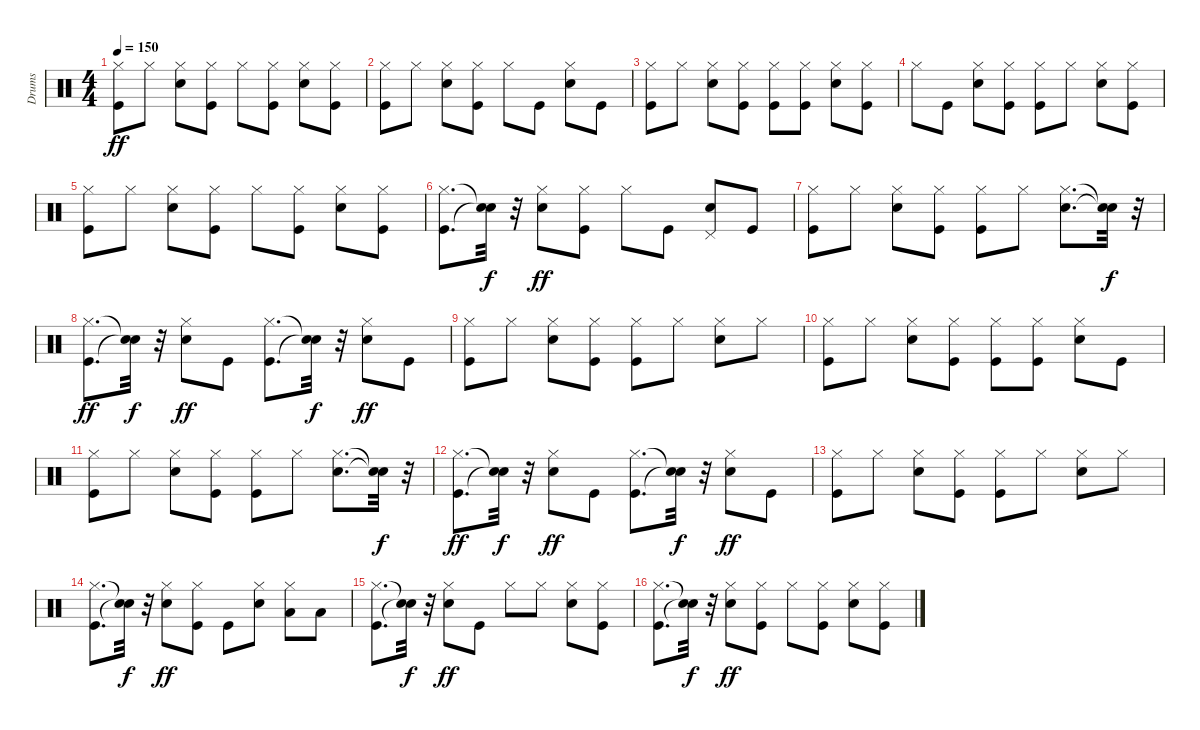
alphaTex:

\track ("Drums" "Drums") {instrument percussion}
\staff {score}
\articulation defaults
\ts (4 4)
\tempo 150
\clef neutral
\ks c
("Kick (hit)" "Hi-Hat (closed)").8{dy ff} "Hi-Hat (closed)".8 ("Snare (hit) 2" "Hi-Hat (closed)").8 ("Kick (hit)" "Hi-Hat (closed)").8 "Hi-Hat (closed)".8 ("Kick (hit)" "Hi-Hat (closed)").8 ("Snare (hit) 2" "Hi-Hat (closed)").8 ("Kick (hit)" "Hi-Hat (closed)").8 |
("Kick (hit)" "Hi-Hat (closed)").8 "Hi-Hat (closed)".8 ("Snare (hit) 2" "Hi-Hat (closed)").8 ("Kick (hit)" "Hi-Hat (closed)").8 "Hi-Hat (closed)".8 "Kick (hit)".8 ("Snare (hit) 2" "Hi-Hat (closed)").8 "Kick (hit)".8 |
("Kick (hit)" "Hi-Hat (closed)").8 "Hi-Hat (closed)".8 ("Snare (hit) 2" "Hi-Hat (closed)").8 ("Kick (hit)" "Hi-Hat (closed)").8 ("Kick (hit)" "Hi-Hat (closed)").8 ("Kick (hit)" "Hi-Hat (closed)").8 ("Snare (hit) 2" "Hi-Hat (closed)").8 ("Kick (hit)" "Hi-Hat (closed)").8 |
"Hi-Hat (closed)".8 "Kick (hit)".8 ("Snare (hit) 2" "Hi-Hat (closed)").8 ("Kick (hit)" "Hi-Hat (closed)").8 ("Kick (hit)" "Hi-Hat (closed)").8 "Hi-Hat (closed)".8 ("Snare (hit) 2" "Hi-Hat (closed)").8 ("Kick (hit)" "Hi-Hat (closed)").8 |
("Kick (hit)" "Hi-Hat (closed)").8 "Hi-Hat (closed)".8 ("Snare (hit) 2" "Hi-Hat (closed)").8 ("Kick (hit)" "Hi-Hat (closed)").8 "Hi-Hat (closed)".8 ("Kick (hit)" "Hi-Hat (closed)").8 ("Snare (hit) 2" "Hi-Hat (closed)").8 ("Kick (hit)" "Hi-Hat (closed)").8 |
("Kick (hit)" "Hi-Hat (closed)").8{d} ("Snare (hit)"{t} "Snare (hit)"{t}).32{dy f} r.32 ("Snare (hit) 2" "Hi-Hat (closed)").8{dy ff} ("Kick (hit)" "Hi-Hat (closed)").8 "Hi-Hat (closed)".8 "Kick (hit)".8 ("Snare (hit) 2" "Pedal Hi-Hat (hit)").8 "Kick (hit)".8 |
("Kick (hit)" "Hi-Hat (closed)").8 "Hi-Hat (closed)".8 ("Snare (hit) 2" "Hi-Hat (closed)").8 ("Kick (hit)" "Hi-Hat (closed)").8 ("Kick (hit)" "Hi-Hat (closed)").8 "Hi-Hat (closed)".8 ("Snare (hit) 2" "Hi-Hat (closed)").8{d} ("Snare (hit)"{t} "Snare (hit)"{t}).32{dy f} r.32 |
("Kick (hit)" "Hi-Hat (closed)").8{d dy ff} ("Snare (hit)"{t} "Snare (hit)"{t}).32{dy f} r.32 ("Snare (hit) 2" "Hi-Hat (closed)").8{dy ff} "Kick (hit)".8 ("Kick (hit)" "Hi-Hat (closed)").8{d} ("Snare (hit)"{t} "Snare (hit)"{t}).32{dy f} r.32 ("Snare (hit) 2" "Hi-Hat (closed)").8{dy ff} "Kick (hit)".8 |
("Kick (hit)" "Hi-Hat (closed)").8 "Hi-Hat (closed)".8 ("Snare (hit) 2" "Hi-Hat (closed)").8 ("Kick (hit)" "Hi-Hat (closed)").8 ("Kick (hit)" "Hi-Hat (closed)").8 "Hi-Hat (closed)".8 ("Snare (hit) 2" "Hi-Hat (closed)").8 "Hi-Hat (closed)".8 |
("Kick (hit)" "Hi-Hat (closed)").8 "Hi-Hat (closed)".8 ("Snare (hit) 2" "Hi-Hat (closed)").8 ("Kick (hit)" "Hi-Hat (closed)").8 ("Kick (hit)" "Hi-Hat (closed)").8 ("Kick (hit)" "Hi-Hat (closed)").8 ("Snare (hit) 2" "Hi-Hat (closed)").8 "Kick (hit)".8 |
("Kick (hit)" "Hi-Hat (closed)").8 "Hi-Hat (closed)".8 ("Snare (hit) 2" "Hi-Hat (closed)").8 ("Kick (hit)" "Hi-Hat (closed)").8 ("Kick (hit)" "Hi-Hat (closed)").8 "Hi-Hat (closed)".8 ("Snare (hit) 2" "Hi-Hat (closed)").8{d} ("Snare (hit)"{t} "Snare (hit)"{t}).32{dy f} r.32 |
("Kick (hit)" "Hi-Hat (closed)").8{d dy ff} ("Snare (hit)"{t} "Snare (hit)"{t}).32{dy f} r.32 ("Snare (hit) 2" "Hi-Hat (closed)").8{dy ff} "Kick (hit)".8 ("Kick (hit)" "Hi-Hat (closed)").8{d} ("Snare (hit)"{t} "Snare (hit)"{t}).32{dy f} r.32 ("Snare (hit) 2" "Hi-Hat (closed)").8{dy ff} "Kick (hit)".8 |
("Kick (hit)" "Hi-Hat (closed)").8 "Hi-Hat (closed)".8 ("Snare (hit) 2" "Hi-Hat (closed)").8 ("Kick (hit)" "Hi-Hat (closed)").8 ("Kick (hit)" "Hi-Hat (closed)").8 "Hi-Hat (closed)".8 ("Snare (hit) 2" "Hi-Hat (closed)").8 "Hi-Hat (closed)".8 |
("Kick (hit)" "Hi-Hat (closed)").8{d} ("Snare (hit)"{t} "Snare (hit)"{t}).32{dy f} r.32 ("Snare (hit) 2" "Hi-Hat (closed)").8{dy ff} ("Kick (hit)" "Hi-Hat (closed)").8 "Kick (hit)".8 ("Snare (hit) 2" "Hi-Hat (closed)").8 ("Hi-Hat (closed)" "Low Tom (hit)").8 "Low Floor Tom (hit)".8 |
("Kick (hit)" "Hi-Hat (closed)").8{d} ("Snare (hit)"{t} "Snare (hit)"{t}).32{dy f} r.32 ("Snare (hit) 2" "Hi-Hat (closed)").8{dy ff} "Kick (hit)".8 "Hi-Hat (closed)".8 "Hi-Hat (closed)".8 ("Snare (hit) 2" "Hi-Hat (closed)").8 ("Kick (hit)" "Hi-Hat (closed)").8 |
("Kick (hit)" "Hi-Hat (closed)").8{d} ("Snare (hit)"{t} "Snare (hit)"{t}).32{dy f} r.32 ("Snare (hit) 2" "Hi-Hat (closed)").8{dy ff} ("Kick (hit)" "Hi-Hat (closed)").8 "Hi-Hat (closed)".8 ("Kick (hit)" "Hi-Hat (closed)").8 ("Snare (hit) 2" "Hi-Hat (closed)").8 ("Kick (hit)" "Hi-Hat (closed)").8
